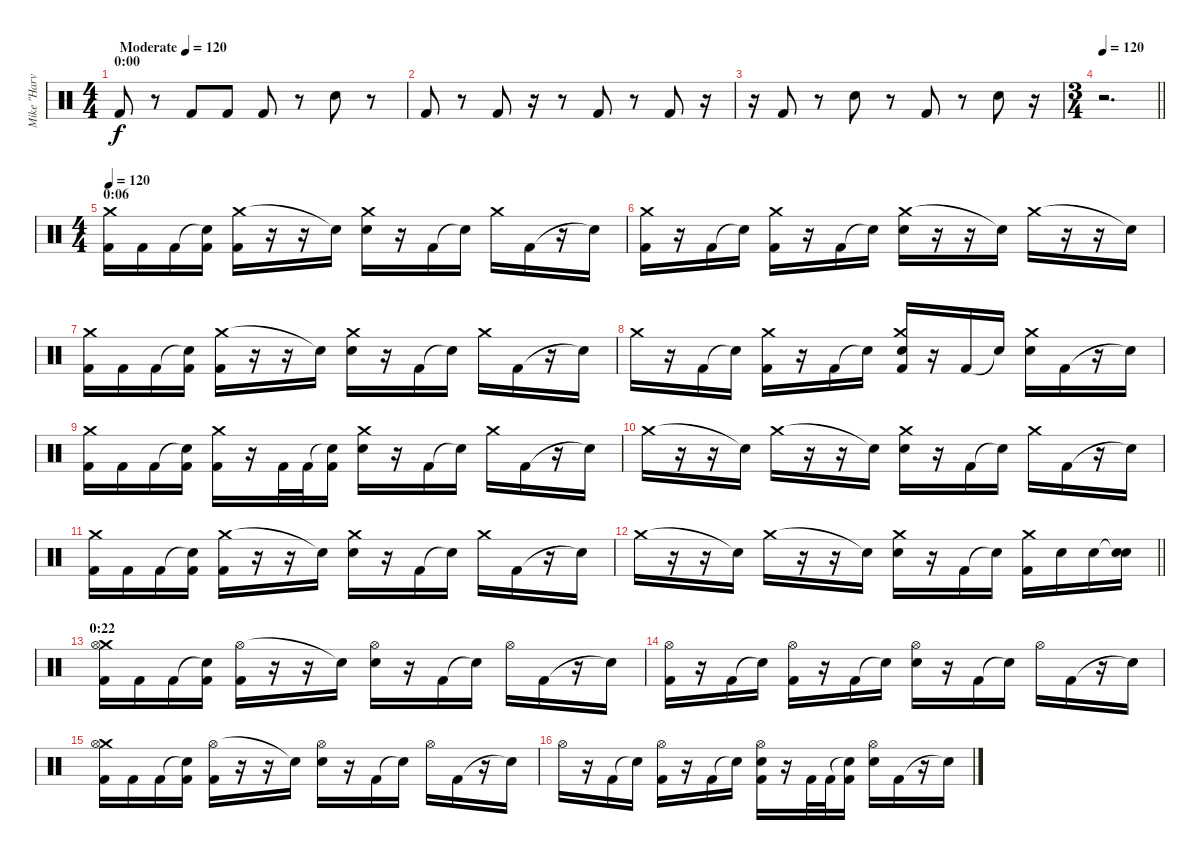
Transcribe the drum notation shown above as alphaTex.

\track ("Mike \"Harvey\" Kaabe" "Mike \"Harv") {instrument percussion}
\staff {score}
\articulation defaults
\ts (4 4)
\section ("" "0:00")
\tempo (120 "Moderate")
\tempo 140
\tempo (120 "Moderate")
\clef neutral
\ks c "Kick (hit) 2".8{dy f}
r.8 "Kick (hit) 2".8 "Kick (hit) 2".8 "Kick (hit) 2".8 r.8 "Snare (hit) 2".8 r.8 |
"Kick (hit) 2".8 r.8 "Kick (hit) 2".8 r.16 r.8 "Kick (hit) 2".8 r.8 "Kick (hit) 2".8 r.16 |
r.16 "Kick (hit) 2".8 r.8 "Snare (hit) 2".8 r.8 "Kick (hit) 2".8 r.8 "Snare (hit) 2".8 r.16 |
\ts (3 4)
\tempo 120
\barLineRight lightlight
r.2{d} |
\ts (4 4)
\section ("" "0:06")
\tempo 120
("Crash medium (hit)" "Kick (hit) 2").16 "Kick (hit) 2".16 "Kick (hit) 2".16 ("Snare (hit)"{t} "Kick (hit) 2").16 ("Crash medium (hit)" "Kick (hit) 2").16 r.16 r.16 "Snare (hit)"{t}.16 ("Crash medium (hit)" "Electric Snare (hit)").16 r.16 "Kick (hit) 2".16 "Snare (hit)"{t}.16 "Crash medium (hit)".16 "Kick (hit) 2".16 r.16 "Snare (hit)"{t}.16 |
("Crash medium (hit)" "Kick (hit) 2").16 r.16 "Kick (hit) 2".16 "Snare (hit)"{t}.16 ("Crash medium (hit)" "Kick (hit) 2").16 r.16 "Kick (hit) 2".16 "Snare (hit)"{t}.16 ("Crash medium (hit)" "Electric Snare (hit)").16 r.16 r.16 "Snare (hit)"{t}.16 "Crash medium (hit)".16 r.16 r.16 "Snare (hit)"{t}.16 |
("Crash medium (hit)" "Kick (hit) 2").16 "Kick (hit) 2".16 "Kick (hit) 2".16 ("Snare (hit)"{t} "Kick (hit) 2").16 ("Crash medium (hit)" "Kick (hit) 2").16 r.16 r.16 "Snare (hit)"{t}.16 ("Crash medium (hit)" "Electric Snare (hit)").16 r.16 "Kick (hit) 2".16 "Snare (hit)"{t}.16 "Crash medium (hit)".16 "Kick (hit) 2".16 r.16 "Snare (hit)"{t}.16 |
"Crash medium (hit)".16 r.16 "Kick (hit) 2".16 "Snare (hit)"{t}.16 ("Crash medium (hit)" "Kick (hit) 2").16 r.16 "Kick (hit) 2".16 "Snare (hit)"{t}.16 ("Crash medium (hit)" "Electric Snare (hit)" "Kick (hit) 2").16 r.16 "Kick (hit) 2".16 "Snare (hit)"{t}.16 ("Crash medium (hit)" "Electric Snare (hit)").16 "Kick (hit) 2".16 r.16 "Snare (hit)"{t}.16 |
("Crash medium (hit)" "Kick (hit) 2").16 "Kick (hit) 2".16 "Kick (hit) 2".16 ("Snare (hit)"{t} "Kick (hit) 2").16 ("Crash medium (hit)" "Kick (hit) 2").16 r.16 "Kick (hit) 2".32 "Kick (hit) 2".32 ("Snare (hit)"{t} "Kick (hit) 2").16 ("Crash medium (hit)" "Electric Snare (hit)").16 r.16 "Kick (hit) 2".16 "Snare (hit)"{t}.16 "Crash medium (hit)".16 "Kick (hit) 2".16 r.16 "Snare (hit)"{t}.16 |
"Crash medium (hit)".16 r.16 r.16 "Snare (hit)"{t}.16 "Crash medium (hit)".16 r.16 r.16 "Snare (hit)"{t}.16 ("Crash medium (hit)" "Electric Snare (hit)").16 r.16 "Kick (hit) 2".16 "Snare (hit)"{t}.16 "Crash medium (hit)".16 "Kick (hit) 2".16 r.16 "Snare (hit)"{t}.16 |
("Crash medium (hit)" "Kick (hit) 2").16 "Kick (hit) 2".16 "Kick (hit) 2".16 ("Snare (hit)"{t} "Kick (hit) 2").16 ("Crash medium (hit)" "Kick (hit) 2").16 r.16 r.16 "Snare (hit)"{t}.16 ("Crash medium (hit)" "Electric Snare (hit)").16 r.16 "Kick (hit) 2".16 "Snare (hit)"{t}.16 "Crash medium (hit)".16 "Kick (hit) 2".16 r.16 "Snare (hit)"{t}.16 |
\barLineRight lightlight "Crash medium (hit)".16
r.16 r.16 "Snare (hit)"{t}.16 "Crash medium (hit)".16 r.16 r.16 "Snare (hit)"{t}.16 ("Crash medium (hit)" "Electric Snare (hit)").16 r.16 "Kick (hit) 2".16 "Snare (hit)"{t}.16 ("Crash medium (hit)" "Kick (hit) 2").16 "Electric Snare (hit)".16 "Electric Snare (hit)".16 ("Snare (hit)"{t} "Electric Snare (hit)").16 |
\section ("" "0:22")
("Crash medium (hit)" "Hi-Hat (open)" "Kick (hit) 2").16 "Kick (hit) 2".16 "Kick (hit) 2".16 ("Snare (hit)"{t} "Kick (hit) 2").16 ("Hi-Hat (open)" "Kick (hit) 2").16 r.16 r.16 "Snare (hit)"{t}.16 ("Hi-Hat (open)" "Electric Snare (hit)").16 r.16 "Kick (hit) 2".16 "Snare (hit)"{t}.16 "Hi-Hat (open)".16 "Kick (hit) 2".16 r.16 "Snare (hit)"{t}.16 |
("Hi-Hat (open)" "Kick (hit) 2").16 r.16 "Kick (hit) 2".16 "Snare (hit)"{t}.16 ("Hi-Hat (open)" "Kick (hit) 2").16 r.16 "Kick (hit) 2".16 "Snare (hit)"{t}.16 ("Hi-Hat (open)" "Electric Snare (hit)").16 r.16 "Kick (hit) 2".16 "Snare (hit)"{t}.16 "Hi-Hat (open)".16 "Kick (hit) 2".16 r.16 "Snare (hit)"{t}.16 |
("Crash medium (hit)" "Hi-Hat (open)" "Kick (hit) 2").16 "Kick (hit) 2".16 "Kick (hit) 2".16 ("Snare (hit)"{t} "Kick (hit) 2").16 ("Hi-Hat (open)" "Kick (hit) 2").16 r.16 r.16 "Snare (hit)"{t}.16 ("Hi-Hat (open)" "Electric Snare (hit)").16 r.16 "Kick (hit) 2".16 "Snare (hit)"{t}.16 "Hi-Hat (open)".16 "Kick (hit) 2".16 r.16 "Snare (hit)"{t}.16 |
"Hi-Hat (open)".16 r.16 "Kick (hit) 2".16 "Snare (hit)"{t}.16 ("Hi-Hat (open)" "Kick (hit) 2").16 r.16 "Kick (hit) 2".16 "Snare (hit)"{t}.16 ("Hi-Hat (open)" "Electric Snare (hit)" "Kick (hit) 2").16 r.16 "Kick (hit) 2".32 "Kick (hit) 2".32 ("Snare (hit)"{t} "Kick (hit) 2").16 ("Hi-Hat (open)" "Electric Snare (hit)").16 "Kick (hit) 2".16 r.16 "Snare (hit)"{t}.16
